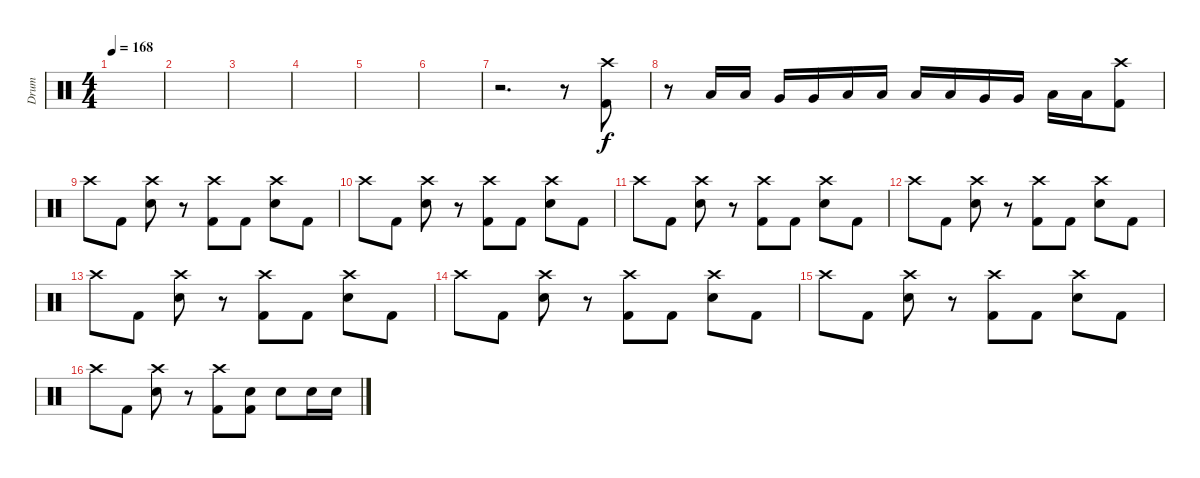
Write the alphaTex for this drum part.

\track ("Drum" "Drum") {instrument percussion}
\staff {score}
\articulation defaults
\ts (4 4)
\tempo 168
\clef neutral
\ks c
|
|
|
|
|
|
r.2{d} r.8 ("Crash high (hit)" "Kick (hit) 2").8 |
r.8 "Low Tom (hit)".16 "Low Tom (hit)".16 "Very Low Tom (hit)".16 "Very Low Tom (hit)".16 "Low Floor Tom (hit)".16 "Low Floor Tom (hit)".16 "Low Tom (hit)".16 "Low Tom (hit)".16 "Very Low Tom (hit)".16 "Very Low Tom (hit)".16 "Low Floor Tom (hit)".16 "Low Floor Tom (hit)".16 ("Crash high (hit)" "Kick (hit) 2").8 |
"Crash high (hit)".8 "Kick (hit) 2".8 ("Crash high (hit)" "Electric Snare (hit)").8 r.8 ("Crash high (hit)" "Kick (hit) 2").8 "Kick (hit) 2".8 ("Crash high (hit)" "Electric Snare (hit)").8 "Kick (hit) 2".8 |
"Crash high (hit)".8 "Kick (hit) 2".8 ("Crash high (hit)" "Electric Snare (hit)").8 r.8 ("Crash high (hit)" "Kick (hit) 2").8 "Kick (hit) 2".8 ("Crash high (hit)" "Electric Snare (hit)").8 "Kick (hit) 2".8 |
"Crash high (hit)".8 "Kick (hit) 2".8 ("Crash high (hit)" "Electric Snare (hit)").8 r.8 ("Crash high (hit)" "Kick (hit) 2").8 "Kick (hit) 2".8 ("Crash high (hit)" "Electric Snare (hit)").8 "Kick (hit) 2".8 |
"Crash high (hit)".8 "Kick (hit) 2".8 ("Crash high (hit)" "Electric Snare (hit)").8 r.8 ("Crash high (hit)" "Kick (hit) 2").8 "Kick (hit) 2".8 ("Crash high (hit)" "Electric Snare (hit)").8 "Kick (hit) 2".8 |
"Crash high (hit)".8 "Kick (hit) 2".8 ("Crash high (hit)" "Electric Snare (hit)").8 r.8 ("Crash high (hit)" "Kick (hit) 2").8 "Kick (hit) 2".8 ("Crash high (hit)" "Electric Snare (hit)").8 "Kick (hit) 2".8 |
"Crash high (hit)".8 "Kick (hit) 2".8 ("Crash high (hit)" "Electric Snare (hit)").8 r.8 ("Crash high (hit)" "Kick (hit) 2").8 "Kick (hit) 2".8 ("Crash high (hit)" "Electric Snare (hit)").8 "Kick (hit) 2".8 |
"Crash high (hit)".8 "Kick (hit) 2".8 ("Crash high (hit)" "Electric Snare (hit)").8 r.8 ("Crash high (hit)" "Kick (hit) 2").8 "Kick (hit) 2".8 ("Crash high (hit)" "Electric Snare (hit)").8 "Kick (hit) 2".8 |
"Crash high (hit)".8 "Kick (hit) 2".8 ("Crash high (hit)" "Electric Snare (hit)").8 r.8 ("Crash high (hit)" "Kick (hit) 2").8 ("Electric Snare (hit)" "Kick (hit) 2").8 "Electric Snare (hit)".8 "Electric Snare (hit)".16 "Electric Snare (hit)".16
